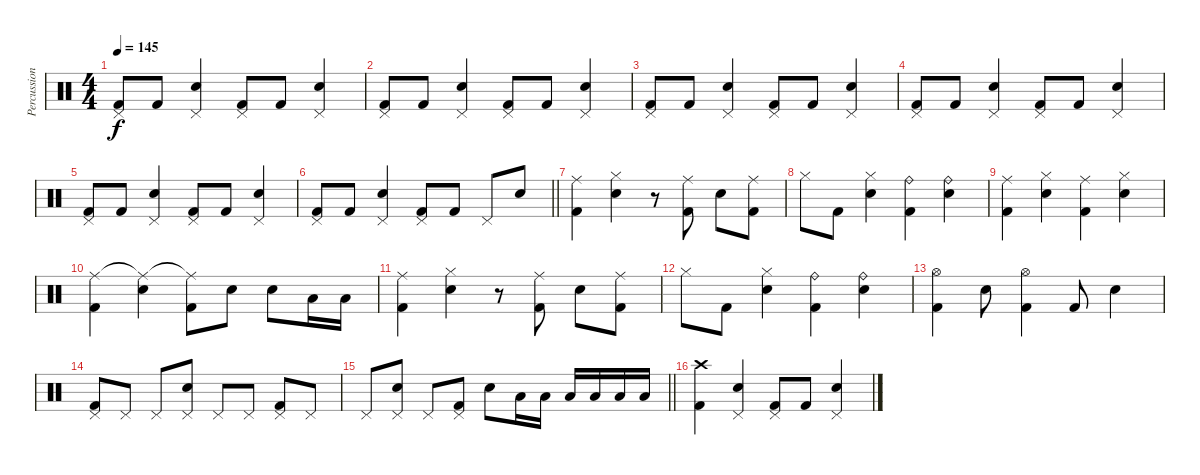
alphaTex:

\track ("Percussion" "Percussion") {instrument percussion}
\staff {score}
\articulation defaults
\ts (4 4)
\tempo 145
\clef neutral
\ks c
("Pedal Hi-Hat (hit)" "Kick (hit) 2").8{dy f} "Kick (hit) 2".8 ("Pedal Hi-Hat (hit)" "Snare (hit) 2").4 ("Pedal Hi-Hat (hit)" "Kick (hit) 2").8 "Kick (hit) 2".8 ("Pedal Hi-Hat (hit)" "Snare (hit) 2").4 |
("Pedal Hi-Hat (hit)" "Kick (hit) 2").8 "Kick (hit) 2".8 ("Pedal Hi-Hat (hit)" "Snare (hit) 2").4 ("Pedal Hi-Hat (hit)" "Kick (hit) 2").8 "Kick (hit) 2".8 ("Pedal Hi-Hat (hit)" "Snare (hit) 2").4 |
("Pedal Hi-Hat (hit)" "Kick (hit) 2").8 "Kick (hit) 2".8 ("Pedal Hi-Hat (hit)" "Snare (hit) 2").4 ("Pedal Hi-Hat (hit)" "Kick (hit) 2").8 "Kick (hit) 2".8 ("Pedal Hi-Hat (hit)" "Snare (hit) 2").4 |
("Pedal Hi-Hat (hit)" "Kick (hit) 2").8 "Kick (hit) 2".8 ("Pedal Hi-Hat (hit)" "Snare (hit) 2").4 ("Pedal Hi-Hat (hit)" "Kick (hit) 2").8 "Kick (hit) 2".8 ("Pedal Hi-Hat (hit)" "Snare (hit) 2").4 |
("Pedal Hi-Hat (hit)" "Kick (hit) 2").8 "Kick (hit) 2".8 ("Pedal Hi-Hat (hit)" "Snare (hit) 2").4 ("Pedal Hi-Hat (hit)" "Kick (hit) 2").8 "Kick (hit) 2".8 ("Pedal Hi-Hat (hit)" "Snare (hit) 2").4 |
\barLineRight lightlight
("Pedal Hi-Hat (hit)" "Kick (hit) 2").8 "Kick (hit) 2".8 ("Pedal Hi-Hat (hit)" "Snare (hit) 2").4 ("Pedal Hi-Hat (hit)" "Kick (hit) 2").8 "Kick (hit) 2".8 "Pedal Hi-Hat (hit)".8 "Snare (hit) 2".8 |
\section ("" "")
("Ride (middle)" "Kick (hit) 2").4 ("Hi-Hat (closed)" "Snare (hit) 2").4 r.8 ("Ride (middle)" "Kick (hit) 2").8 "Snare (hit) 2".8 ("Ride (middle)" "Kick (hit) 2").8 |
"Hi-Hat (closed)".8 "Kick (hit) 2".8 ("Hi-Hat (closed)" "Snare (hit) 2").4 ("Ride (bell)" "Kick (hit) 2").4 ("Ride (bell)" "Snare (hit) 2").4 |
("Ride (middle)" "Kick (hit) 2").4 ("Hi-Hat (closed)" "Snare (hit) 2").4 ("Ride (middle)" "Kick (hit) 2").4 ("Hi-Hat (closed)" "Snare (hit) 2").4 |
("Ride (middle)" "Kick (hit) 2").4 ("Ride (middle)"{t} "Snare (hit) 2").4 ("Ride (middle)"{t} "Kick (hit) 2").8 "Snare (hit) 2".8 "Snare (hit) 2".8 "Low Tom (hit)".16 "Low Tom (hit)".16 |
("Ride (middle)" "Kick (hit) 2").4 ("Hi-Hat (closed)" "Snare (hit) 2").4 r.8 ("Ride (middle)" "Kick (hit) 2").8 "Snare (hit) 2".8 ("Ride (middle)" "Kick (hit) 2").8 |
"Hi-Hat (closed)".8 "Kick (hit) 2".8 ("Hi-Hat (closed)" "Snare (hit) 2").4 ("Ride (bell)" "Kick (hit) 2").4 ("Ride (bell)" "Snare (hit) 2").4 |
("Hi-Hat (open)" "Kick (hit) 2").4 "Snare (hit) 2".8 ("Hi-Hat (open)" "Kick (hit) 2").4 "Kick (hit) 2".8 "Snare (hit) 2".4 |
("Pedal Hi-Hat (hit)" "Kick (hit) 2").8 "Pedal Hi-Hat (hit)".8 "Pedal Hi-Hat (hit)".8 ("Pedal Hi-Hat (hit)" "Snare (hit) 2").8 "Pedal Hi-Hat (hit)".8 "Pedal Hi-Hat (hit)".8 ("Pedal Hi-Hat (hit)" "Kick (hit) 2").8 "Pedal Hi-Hat (hit)".8 |
\barLineRight lightlight "Pedal Hi-Hat (hit)".8
("Pedal Hi-Hat (hit)" "Snare (hit) 2").8 "Pedal Hi-Hat (hit)".8 ("Pedal Hi-Hat (hit)" "Kick (hit) 2").8 "Snare (hit) 2".8 "Low Tom (hit)".16 "Low Tom (hit)".16 "Low Tom (hit)".16 "Low Tom (hit)".16 "Low Tom (hit)".16 "Low Tom (hit)".16 |
\section ("" "")
("Crash high (hit)" "Kick (hit) 2").4 ("Pedal Hi-Hat (hit)" "Snare (hit) 2").4 ("Pedal Hi-Hat (hit)" "Kick (hit) 2").8 "Kick (hit) 2".8 ("Pedal Hi-Hat (hit)" "Snare (hit) 2").4
